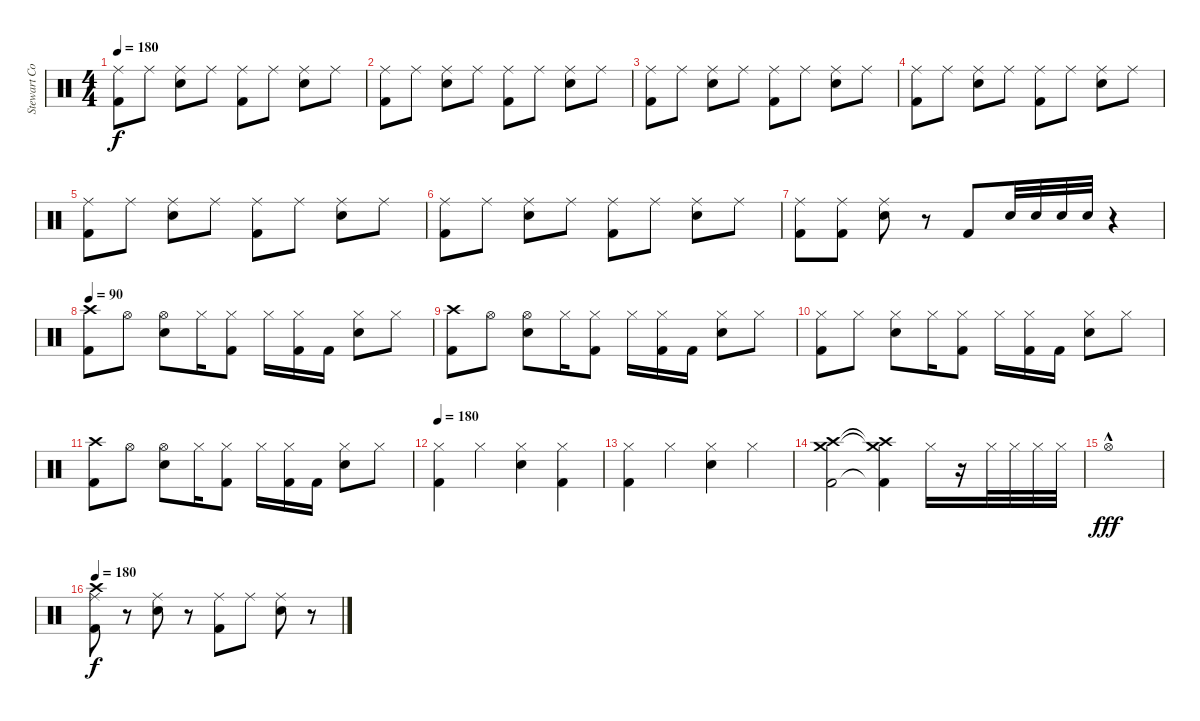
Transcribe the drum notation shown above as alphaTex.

\track ("Stewart Copeland" "Stewart Co") {instrument percussion}
\staff {score}
\articulation defaults
\ts (4 4)
\tempo 180
\clef neutral
\ks c
("Ride (middle)" "Kick (hit) 2").8{dy f} "Ride (middle)".8 ("Ride (middle)" "Electric Snare (hit)").8 "Ride (middle)".8 ("Ride (middle)" "Kick (hit) 2").8 "Ride (middle)".8 ("Ride (middle)" "Electric Snare (hit)").8 "Ride (middle)".8 |
("Ride (middle)" "Kick (hit) 2").8 "Ride (middle)".8 ("Ride (middle)" "Electric Snare (hit)").8 "Ride (middle)".8 ("Ride (middle)" "Kick (hit) 2").8 "Ride (middle)".8 ("Ride (middle)" "Electric Snare (hit)").8 "Ride (middle)".8 |
("Ride (middle)" "Kick (hit) 2").8 "Ride (middle)".8 ("Ride (middle)" "Electric Snare (hit)").8 "Ride (middle)".8 ("Ride (middle)" "Kick (hit) 2").8 "Ride (middle)".8 ("Ride (middle)" "Electric Snare (hit)").8 "Ride (middle)".8 |
("Ride (middle)" "Kick (hit) 2").8 "Ride (middle)".8 ("Ride (middle)" "Electric Snare (hit)").8 "Ride (middle)".8 ("Ride (middle)" "Kick (hit) 2").8 "Ride (middle)".8 ("Ride (middle)" "Electric Snare (hit)").8 "Ride (middle)".8 |
("Ride (middle)" "Kick (hit) 2").8 "Ride (middle)".8 ("Ride (middle)" "Electric Snare (hit)").8 "Ride (middle)".8 ("Ride (middle)" "Kick (hit) 2").8 "Ride (middle)".8 ("Ride (middle)" "Electric Snare (hit)").8 "Ride (middle)".8 |
("Ride (middle)" "Kick (hit) 2").8 "Ride (middle)".8 ("Ride (middle)" "Electric Snare (hit)").8 "Ride (middle)".8 ("Ride (middle)" "Kick (hit) 2").8 "Ride (middle)".8 ("Ride (middle)" "Electric Snare (hit)").8 "Ride (middle)".8 |
("Ride (middle)" "Kick (hit) 2").8 ("Ride (middle)" "Kick (hit) 2").8 ("Ride (middle)" "Electric Snare (hit)").8 r.8 "Kick (hit) 2".8 "Electric Snare (hit)".32 "Electric Snare (hit)".32 "Electric Snare (hit)".32 "Electric Snare (hit)".32 r.4 |
\tempo 90
("Crash high (hit)" "Kick (hit) 2").8 "Hi-Hat (open)".8 ("Hi-Hat (open)" "Electric Snare (hit)").8 "Hi-Hat (closed)".16 ("Hi-Hat (closed)" "Kick (hit) 2").8 "Hi-Hat (closed)".16 ("Hi-Hat (closed)" "Kick (hit) 2").16 "Kick (hit) 2".16 ("Hi-Hat (closed)" "Electric Snare (hit)").8 "Hi-Hat (closed)".8 |
("Crash high (hit)" "Kick (hit) 2").8 "Hi-Hat (open)".8 ("Hi-Hat (open)" "Electric Snare (hit)").8 "Hi-Hat (closed)".16 ("Hi-Hat (closed)" "Kick (hit) 2").8 "Hi-Hat (closed)".16 ("Hi-Hat (closed)" "Kick (hit) 2").16 "Kick (hit) 2".16 ("Hi-Hat (closed)" "Electric Snare (hit)").8 "Hi-Hat (closed)".8 |
("Hi-Hat (closed)" "Kick (hit) 2").8 "Hi-Hat (closed)".8 ("Hi-Hat (closed)" "Electric Snare (hit)").8 "Hi-Hat (closed)".16 ("Hi-Hat (closed)" "Kick (hit) 2").8 "Hi-Hat (closed)".16 ("Hi-Hat (closed)" "Kick (hit) 2").16 "Kick (hit) 2".16 ("Hi-Hat (closed)" "Electric Snare (hit)").8 "Hi-Hat (closed)".8 |
("Crash high (hit)" "Kick (hit) 2").8 "Hi-Hat (open)".8 ("Hi-Hat (open)" "Electric Snare (hit)").8 "Hi-Hat (closed)".16 ("Hi-Hat (closed)" "Kick (hit) 2").8 "Hi-Hat (closed)".16 ("Hi-Hat (closed)" "Kick (hit) 2").16 "Kick (hit) 2".16 ("Hi-Hat (closed)" "Electric Snare (hit)").8 "Hi-Hat (closed)".8 |
\tempo 180
("Hi-Hat (closed)" "Kick (hit) 2").4 "Hi-Hat (closed)".4 ("Hi-Hat (closed)" "Electric Snare (hit)").4 ("Hi-Hat (closed)" "Kick (hit) 2").4 |
("Hi-Hat (closed)" "Kick (hit) 2").4 "Hi-Hat (closed)".4 ("Hi-Hat (closed)" "Electric Snare (hit)").4 "Hi-Hat (closed)".4 |
("Crash high (hit)" "Crash medium (hit)" "Kick (hit) 2").2 ("Crash high (hit)"{t} "Crash medium (hit)"{t} "Kick (hit) 2"{t}).4 "Hi-Hat (closed)".16 r.16 "Hi-Hat (closed)".32 "Hi-Hat (closed)".32 "Hi-Hat (closed)".32 "Hi-Hat (closed)".32 |
"Hi-Hat (open)"{hac}.1{dy fff} |
\tempo 180
("Crash high (hit)" "Ride (middle)" "Kick (hit) 2").8{dy f} r.8 ("Ride (middle)" "Electric Snare (hit)").8 r.8 ("Ride (middle)" "Kick (hit) 2").8 "Ride (middle)".8 ("Ride (middle)" "Electric Snare (hit)").8 r.8
